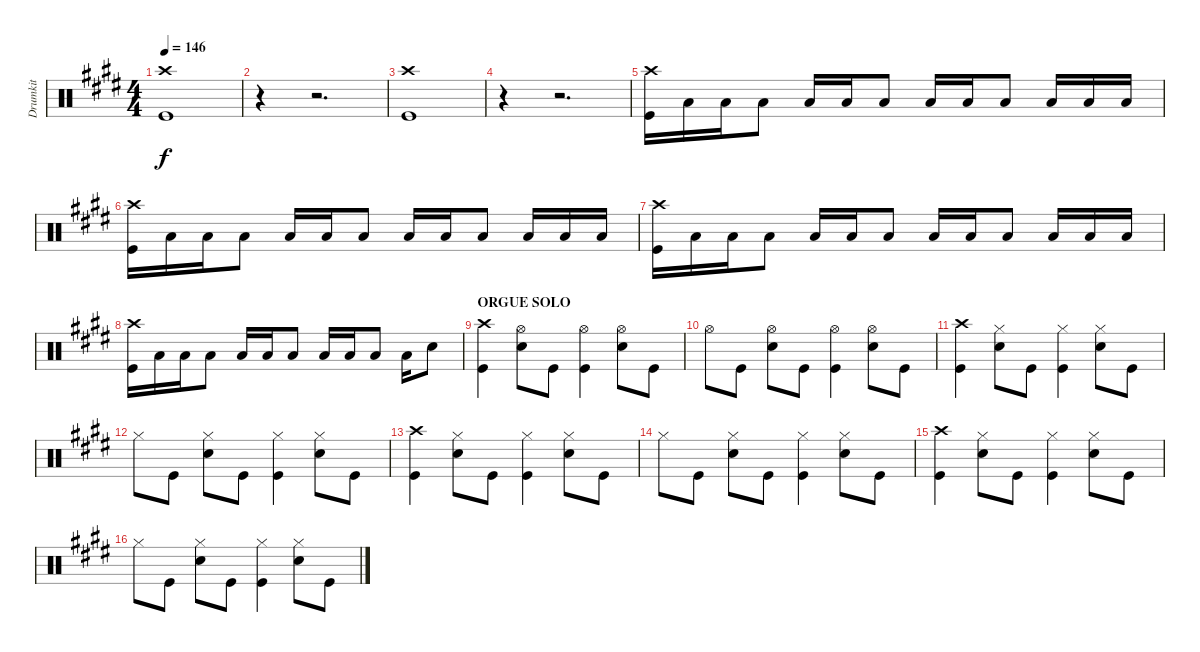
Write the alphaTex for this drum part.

\track ("Drumkit" "Drumkit") {instrument percussion}
\staff {score}
\articulation defaults
\ts (4 4)
\tempo 146
\clef neutral
\ks e
("Kick (hit)" "Crash high (hit)").1{dy f} |
r.4 r.2{d} |
("Kick (hit)" "Crash high (hit)").1 |
r.4 r.2{d} |
("Kick (hit)" "Crash high (hit)").16 "Low Floor Tom (hit)".16 "Low Floor Tom (hit)".16 "Low Floor Tom (hit)".8 "Low Floor Tom (hit)".16 "Low Floor Tom (hit)".16 "Low Floor Tom (hit)".8 "Low Floor Tom (hit)".16 "Low Floor Tom (hit)".16 "Low Floor Tom (hit)".8 "Low Floor Tom (hit)".16 "Low Floor Tom (hit)".16 "Low Floor Tom (hit)".16 |
("Kick (hit)" "Crash high (hit)").16 "Low Floor Tom (hit)".16 "Low Floor Tom (hit)".16 "Low Floor Tom (hit)".8 "Low Floor Tom (hit)".16 "Low Floor Tom (hit)".16 "Low Floor Tom (hit)".8 "Low Floor Tom (hit)".16 "Low Floor Tom (hit)".16 "Low Floor Tom (hit)".8 "Low Floor Tom (hit)".16 "Low Floor Tom (hit)".16 "Low Floor Tom (hit)".16 |
("Kick (hit)" "Crash high (hit)").16 "Low Floor Tom (hit)".16 "Low Floor Tom (hit)".16 "Low Floor Tom (hit)".8 "Low Floor Tom (hit)".16 "Low Floor Tom (hit)".16 "Low Floor Tom (hit)".8 "Low Floor Tom (hit)".16 "Low Floor Tom (hit)".16 "Low Floor Tom (hit)".8 "Low Floor Tom (hit)".16 "Low Floor Tom (hit)".16 "Low Floor Tom (hit)".16 |
("Kick (hit)" "Crash high (hit)").16 "Low Floor Tom (hit)".16 "Low Floor Tom (hit)".16 "Low Floor Tom (hit)".8 "Low Floor Tom (hit)".16 "Low Floor Tom (hit)".16 "Low Floor Tom (hit)".8 "Low Floor Tom (hit)".16 "Low Floor Tom (hit)".16 "Low Floor Tom (hit)".8 "Low Floor Tom (hit)".16 "Snare (hit) 2".8 |
\section ("" "ORGUE SOLO")
("Kick (hit)" "Crash high (hit)").4 ("Snare (hit) 2" "Hi-Hat (open)").8 "Kick (hit)".8 ("Kick (hit)" "Hi-Hat (open)").4 ("Snare (hit) 2" "Hi-Hat (open)").8 "Kick (hit)".8 |
"Hi-Hat (open)".8 "Kick (hit)".8 ("Snare (hit) 2" "Hi-Hat (open)").8 "Kick (hit)".8 ("Kick (hit)" "Hi-Hat (open)").4 ("Snare (hit) 2" "Hi-Hat (open)").8 "Kick (hit)".8 |
("Kick (hit)" "Crash high (hit)").4 ("Snare (hit) 2" "Hi-Hat (closed)").8 "Kick (hit)".8 ("Kick (hit)" "Hi-Hat (closed)").4 ("Snare (hit) 2" "Hi-Hat (closed)").8 "Kick (hit)".8 |
"Hi-Hat (closed)".8 "Kick (hit)".8 ("Snare (hit) 2" "Hi-Hat (closed)").8 "Kick (hit)".8 ("Kick (hit)" "Hi-Hat (closed)").4 ("Snare (hit) 2" "Hi-Hat (closed)").8 "Kick (hit)".8 |
("Kick (hit)" "Crash high (hit)").4 ("Snare (hit) 2" "Hi-Hat (closed)").8 "Kick (hit)".8 ("Kick (hit)" "Hi-Hat (closed)").4 ("Snare (hit) 2" "Hi-Hat (closed)").8 "Kick (hit)".8 |
"Hi-Hat (closed)".8 "Kick (hit)".8 ("Snare (hit) 2" "Hi-Hat (closed)").8 "Kick (hit)".8 ("Kick (hit)" "Hi-Hat (closed)").4 ("Snare (hit) 2" "Hi-Hat (closed)").8 "Kick (hit)".8 |
("Kick (hit)" "Crash high (hit)").4 ("Snare (hit) 2" "Hi-Hat (closed)").8 "Kick (hit)".8 ("Kick (hit)" "Hi-Hat (closed)").4 ("Snare (hit) 2" "Hi-Hat (closed)").8 "Kick (hit)".8 |
"Hi-Hat (closed)".8 "Kick (hit)".8 ("Snare (hit) 2" "Hi-Hat (closed)").8 "Kick (hit)".8 ("Kick (hit)" "Hi-Hat (closed)").4 ("Snare (hit) 2" "Hi-Hat (closed)").8 "Kick (hit)".8
